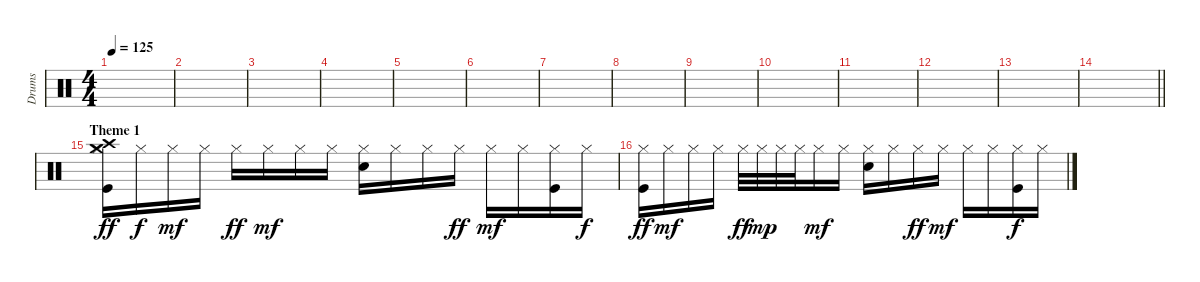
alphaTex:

\track ("Drums" "Drums") {instrument percussion}
\staff {score}
\articulation defaults
\ts (4 4)
\tempo 125
\clef neutral
\ks c
|
|
|
|
|
|
|
|
|
|
|
|
|
\barLineRight lightlight
|
\section ("" "Theme 1")
("Hi-Hat (closed)" "Kick (hit)" "Crash medium (hit)" "Crash high (hit)").16{dy ff} "Hi-Hat (closed)".16{dy f} "Hi-Hat (closed)".16{dy mf} "Hi-Hat (closed)".16 "Hi-Hat (closed)".16{dy ff} "Hi-Hat (closed)".16{dy mf} "Hi-Hat (closed)".16 "Hi-Hat (closed)".16 ("Hi-Hat (closed)" "Electric Snare (hit)").16 "Hi-Hat (closed)".16 "Hi-Hat (closed)".16 "Hi-Hat (closed)".16{dy ff} "Hi-Hat (closed)".16{dy mf} "Hi-Hat (closed)".16 ("Hi-Hat (closed)" "Kick (hit)").16 "Hi-Hat (closed)".16{dy f} |
("Hi-Hat (closed)" "Kick (hit)").16{dy ff} "Hi-Hat (closed)".16{dy mf} "Hi-Hat (closed)".16 "Hi-Hat (closed)".16 "Hi-Hat (closed)".32{dy ff} "Hi-Hat (closed)".32{dy mp} "Hi-Hat (closed)".32 "Hi-Hat (closed)".32 "Hi-Hat (closed)".16{dy mf} "Hi-Hat (closed)".16 ("Hi-Hat (closed)" "Electric Snare (hit)").16 "Hi-Hat (closed)".16 "Hi-Hat (closed)".16{dy ff} "Hi-Hat (closed)".16{dy mf} "Hi-Hat (closed)".16 "Hi-Hat (closed)".16 ("Hi-Hat (closed)" "Kick (hit)").16{dy f} "Hi-Hat (closed)".16
